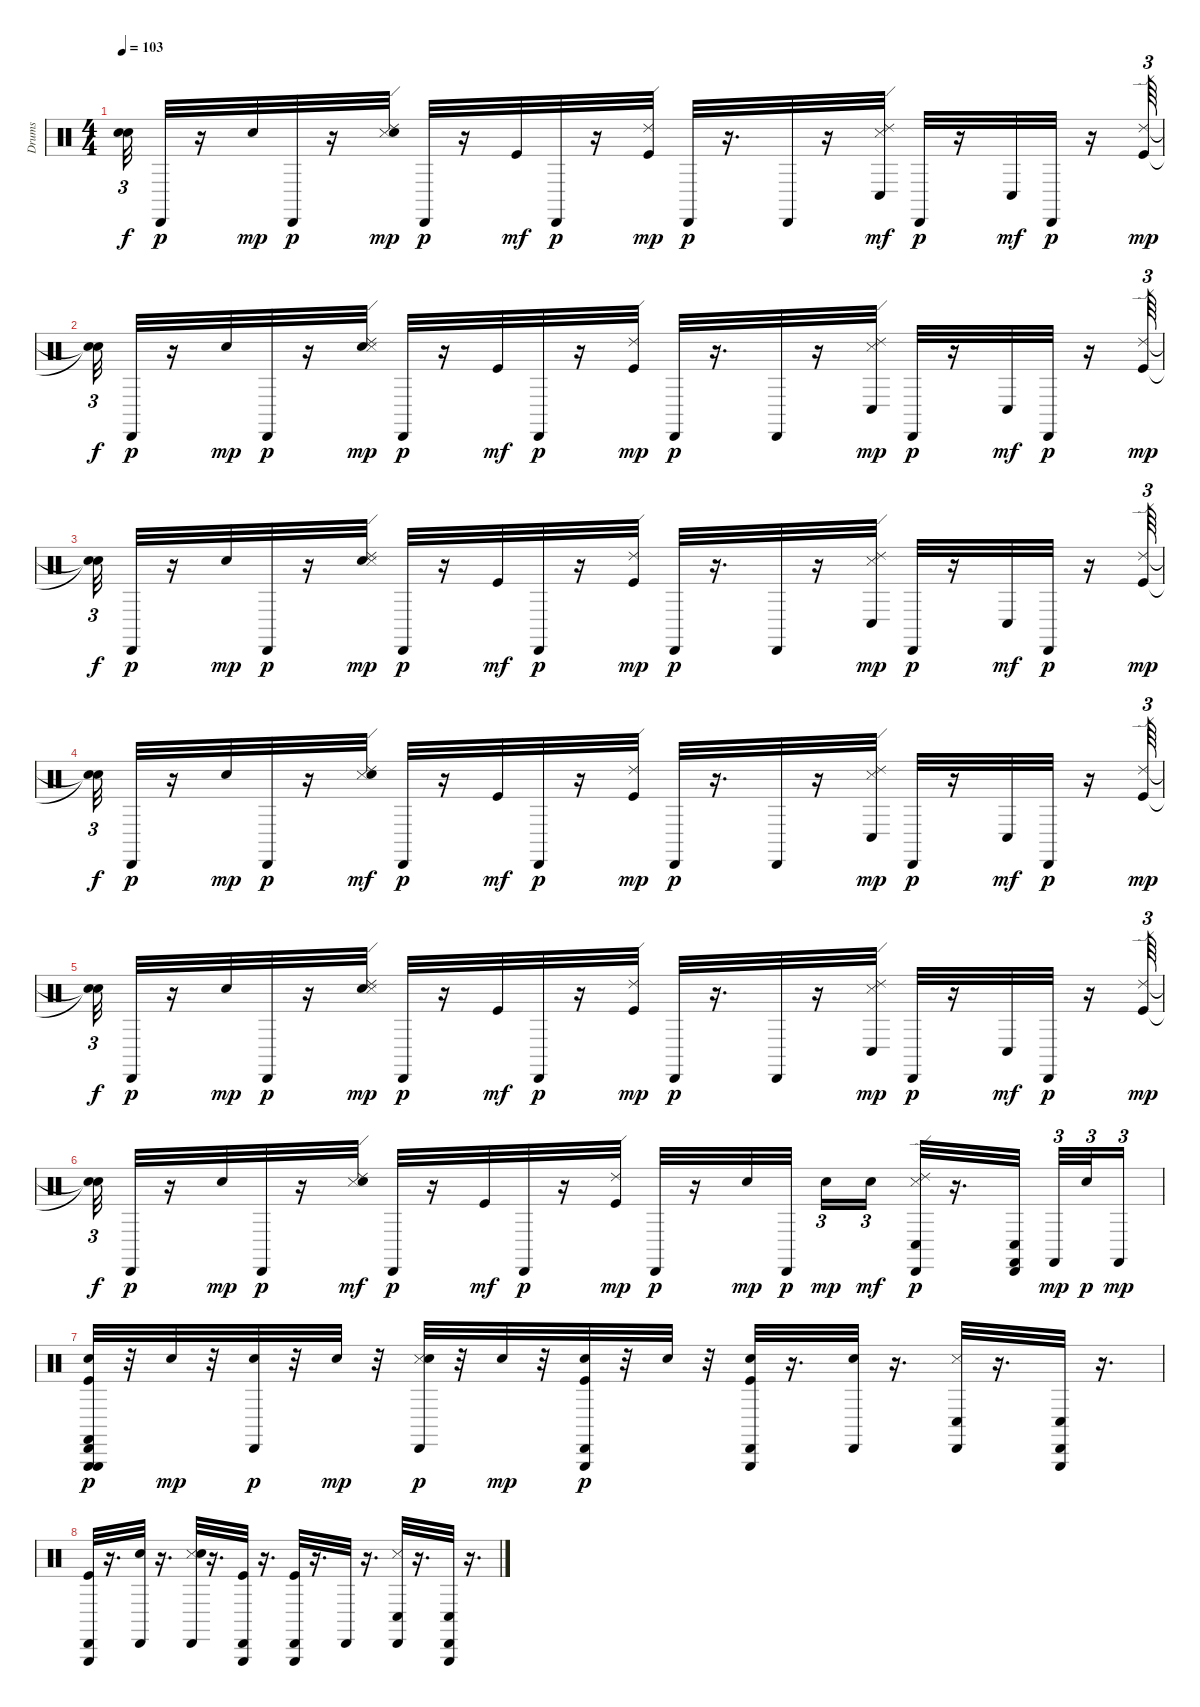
\track ("Drums" "Drums") {instrument percussion}
\staff {score}
\articulation defaults
\ts (4 4)
\tempo 103
\clef neutral
\ks c
("Snare (hit)"{t} "Snare (hit)"{t}).32{tu (3 2) dy f} "Cabasa (hit)".32{dy p} r.16 "Snare (hit) 2".32{dy mp} "Cabasa (hit)".32{dy p} r.16 ("Snare (side stick) 3" "Snare (hit) 2" "Ride (edge) 2").32{dy mp} "Cabasa (hit)".32{dy p} r.16 "Kick (hit)".32{dy mf} "Cabasa (hit)".32{dy p} r.16 ("Ride (edge) 2" "Kick (hit)").32{dy mp} "Cabasa (hit)".32{dy p} r.16{d} "Cabasa (hit)".32 r.16 ("Snare (side stick) 3" "Ride (edge) 2" "Conga low (hit)").32{dy mf} "Cabasa (hit)".32{dy p} r.16 "Conga low (hit)".32{dy mf} "Cabasa (hit)".32{dy p} r.16 ("Kick (hit)" "Ride (edge) 2").64{tu (3 2) dy mp} |
("Snare (hit)"{t} "Snare (hit)"{t}).32{tu (3 2) dy f} "Cabasa (hit)".32{dy p} r.16 "Snare (hit) 2".32{dy mp} "Cabasa (hit)".32{dy p} r.16 ("Snare (hit) 2" "Ride (edge) 2" "Snare (side stick) 3").32{dy mp} "Cabasa (hit)".32{dy p} r.16 "Kick (hit)".32{dy mf} "Cabasa (hit)".32{dy p} r.16 ("Ride (edge) 2" "Kick (hit)").32{dy mp} "Cabasa (hit)".32{dy p} r.16{d} "Cabasa (hit)".32 r.16 ("Conga low (hit)" "Ride (edge) 2" "Snare (side stick) 3").32{dy mp} "Cabasa (hit)".32{dy p} r.16 "Conga low (hit)".32{dy mf} "Cabasa (hit)".32{dy p} r.16 ("Kick (hit)" "Ride (edge) 2").64{tu (3 2) dy mp} |
("Snare (hit)"{t} "Snare (hit)"{t}).32{tu (3 2) dy f} "Cabasa (hit)".32{dy p} r.16 "Snare (hit) 2".32{dy mp} "Cabasa (hit)".32{dy p} r.16 ("Snare (hit) 2" "Ride (edge) 2" "Snare (side stick) 3").32{dy mp} "Cabasa (hit)".32{dy p} r.16 "Kick (hit)".32{dy mf} "Cabasa (hit)".32{dy p} r.16 ("Ride (edge) 2" "Kick (hit)").32{dy mp} "Cabasa (hit)".32{dy p} r.16{d} "Cabasa (hit)".32 r.16 ("Conga low (hit)" "Snare (side stick) 3" "Ride (edge) 2").32{dy mp} "Cabasa (hit)".32{dy p} r.16 "Conga low (hit)".32{dy mf} "Cabasa (hit)".32{dy p} r.16 ("Ride (edge) 2" "Kick (hit)").64{tu (3 2) dy mp} |
("Snare (hit)"{t} "Snare (hit)"{t}).32{tu (3 2) dy f} "Cabasa (hit)".32{dy p} r.16 "Snare (hit) 2".32{dy mp} "Cabasa (hit)".32{dy p} r.16 ("Ride (edge) 2" "Snare (side stick) 3" "Snare (hit) 2").32{dy mf} "Cabasa (hit)".32{dy p} r.16 "Kick (hit)".32{dy mf} "Cabasa (hit)".32{dy p} r.16 ("Kick (hit)" "Ride (edge) 2").32{dy mp} "Cabasa (hit)".32{dy p} r.16{d} "Cabasa (hit)".32 r.16 ("Snare (side stick) 3" "Conga low (hit)" "Ride (edge) 2").32{dy mp} "Cabasa (hit)".32{dy p} r.16 "Conga low (hit)".32{dy mf} "Cabasa (hit)".32{dy p} r.16 ("Ride (edge) 2" "Kick (hit)").64{tu (3 2) dy mp} |
("Snare (hit)"{t} "Snare (hit)"{t}).32{tu (3 2) dy f} "Cabasa (hit)".32{dy p} r.16 "Snare (hit) 2".32{dy mp} "Cabasa (hit)".32{dy p} r.16 ("Snare (hit) 2" "Snare (side stick) 3" "Ride (edge) 2").32{dy mp} "Cabasa (hit)".32{dy p} r.16 "Kick (hit)".32{dy mf} "Cabasa (hit)".32{dy p} r.16 ("Ride (edge) 2" "Kick (hit)").32{dy mp} "Cabasa (hit)".32{dy p} r.16{d} "Cabasa (hit)".32 r.16 ("Conga low (hit)" "Snare (side stick) 3" "Ride (edge) 2").32{dy mp} "Cabasa (hit)".32{dy p} r.16 "Conga low (hit)".32{dy mf} "Cabasa (hit)".32{dy p} r.16 ("Kick (hit)" "Ride (edge) 2").64{tu (3 2) dy mp} |
("Snare (hit)"{t} "Snare (hit)"{t}).32{tu (3 2) dy f} "Cabasa (hit)".32{dy p} r.16 "Snare (hit) 2".32{dy mp} "Cabasa (hit)".32{dy p} r.16 ("Snare (side stick) 3" "Ride (edge) 2" "Snare (hit) 2").32{dy mf} "Cabasa (hit)".32{dy p} r.16 "Kick (hit)".32{dy mf} "Cabasa (hit)".32{dy p} r.16 ("Kick (hit)" "Ride (edge) 2").32{dy mp} "Cabasa (hit)".32{dy p} r.16 "Snare (hit) 2".32{dy mp} "Cabasa (hit)".32{dy p} "Snare (hit) 2".16{tu (3 2) dy mp} "Snare (hit) 2".16{tu (3 2) dy mf} ("Snare (side stick) 3" "Conga low (hit)" "Ride (edge) 2" "Cabasa (hit)").32{dy p} r.16{d} ("Castanets (hit)" "Conga low (hit)" "Cabasa (hit)").32 "Castanets (hit)".32{tu (3 2) dy mp} "Hand Clap (hit)".32{tu (3 2) dy p} "Castanets (hit)".16{tu (3 2) dy mp} |
("Snare (hit) 2" "Castanets (hit)" "Kick (hit)" "Triangle (hit)" "Triangle (hit)" "Cabasa (hit)").32{dy p} r.32 "Snare (hit) 2".32{dy mp} r.32 ("Snare (hit) 2" "Cabasa (hit)").32{dy p} r.32 "Snare (hit) 2".32{dy mp} r.32 ("Snare (side stick) 3" "Snare (hit) 2" "Cabasa (hit)").32{dy p} r.32 "Snare (hit) 2".32{dy mp} r.32 ("Triangle (hit)" "Snare (hit) 2" "Kick (hit)" "Cabasa (hit)").32{dy p} r.32 "Snare (hit) 2".32 r.32 ("Kick (hit)" "Triangle (hit)" "Snare (hit) 2" "Cabasa (hit)").32 r.16{d} ("Snare (hit) 2" "Cabasa (hit)").32 r.16{d} ("Snare (side stick) 3" "Conga low (hit)" "Cabasa (hit)").32 r.16{d} ("Triangle (hit)" "Conga low (hit)" "Cabasa (hit)").32 r.16{d} |
("Kick (hit)" "Triangle (hit)" "Cabasa (hit)").32 r.16{d} ("Snare (hit) 2" "Cabasa (hit)").32 r.16{d} ("Snare (side stick) 3" "Snare (hit) 2" "Cabasa (hit)").32 r.16{d} ("Triangle (hit)" "Kick (hit)" "Cabasa (hit)").32 r.16{d} ("Kick (hit)" "Triangle (hit)" "Cabasa (hit)").32 r.16{d} "Cabasa (hit)".32 r.16{d} ("Conga low (hit)" "Snare (side stick) 3" "Cabasa (hit)").32 r.16{d} ("Triangle (hit)" "Conga low (hit)" "Cabasa (hit)").32 r.16{d}
